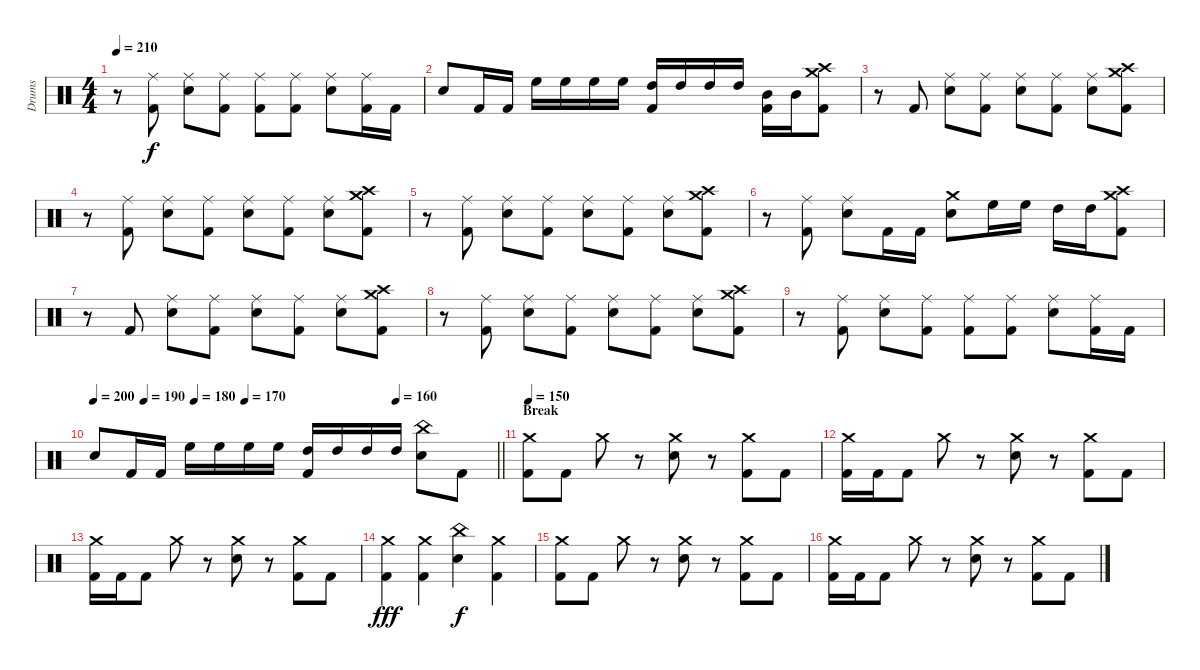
\track ("Drums" "Drums") {instrument percussion}
\staff {score}
\articulation defaults
\ts (4 4)
\tempo 210
\clef neutral
\ks c
r.8{dy f} ("Ride (middle)" "Kick (hit) 2").8 ("Ride (middle)" "Electric Snare (hit)").8 ("Ride (middle)" "Kick (hit) 2").8 ("Ride (middle)" "Kick (hit) 2").8 ("Ride (middle)" "Kick (hit) 2").8 ("Ride (middle)" "Electric Snare (hit)").8 ("Ride (middle)" "Kick (hit) 2").16 "Kick (hit) 2".16 |
"Electric Snare (hit)".8 "Kick (hit) 2".16 "Kick (hit) 2".16 "High Floor Tom (hit)".16 "High Floor Tom (hit)".16 "High Floor Tom (hit)".16 "High Floor Tom (hit)".16 ("High Tom (hit)" "Kick (hit) 2").16 "High Tom (hit)".16 "High Tom (hit)".16 "High Tom (hit)".16 ("Mid Tom (hit)" "Kick (hit) 2").16 "Mid Tom (hit)".16 ("Crash high (hit)" "Crash medium (hit)" "Kick (hit) 2").8 |
r.8 "Kick (hit) 2".8 ("Ride (middle)" "Electric Snare (hit)").8 ("Ride (middle)" "Kick (hit) 2").8 ("Ride (middle)" "Electric Snare (hit)").8 ("Ride (middle)" "Kick (hit) 2").8 ("Ride (middle)" "Electric Snare (hit)").8 ("Crash high (hit)" "Crash medium (hit)" "Kick (hit) 2").8 |
r.8 ("Ride (middle)" "Kick (hit) 2").8 ("Ride (middle)" "Electric Snare (hit)").8 ("Ride (middle)" "Kick (hit) 2").8 ("Ride (middle)" "Electric Snare (hit)").8 ("Ride (middle)" "Kick (hit) 2").8 ("Ride (middle)" "Electric Snare (hit)").8 ("Crash high (hit)" "Crash medium (hit)" "Kick (hit) 2").8 |
r.8 ("Ride (middle)" "Kick (hit) 2").8 ("Ride (middle)" "Electric Snare (hit)").8 ("Ride (middle)" "Kick (hit) 2").8 ("Ride (middle)" "Electric Snare (hit)").8 ("Ride (middle)" "Kick (hit) 2").8 ("Ride (middle)" "Electric Snare (hit)").8 ("Crash high (hit)" "Crash medium (hit)" "Kick (hit) 2").8 |
r.8 ("Ride (middle)" "Kick (hit) 2").8 ("Ride (middle)" "Electric Snare (hit)").8 "Kick (hit) 2".16 "Kick (hit) 2".16 ("Crash medium (hit)" "Electric Snare (hit)").8 "High Floor Tom (hit)".16 "High Floor Tom (hit)".16 "High Tom (hit)".16 "High Tom (hit)".16 ("Crash high (hit)" "Crash medium (hit)" "Kick (hit) 2").8 |
r.8 "Kick (hit) 2".8 ("Ride (middle)" "Electric Snare (hit)").8 ("Ride (middle)" "Kick (hit) 2").8 ("Ride (middle)" "Electric Snare (hit)").8 ("Ride (middle)" "Kick (hit) 2").8 ("Ride (middle)" "Electric Snare (hit)").8 ("Crash high (hit)" "Crash medium (hit)" "Kick (hit) 2").8 |
r.8 ("Ride (middle)" "Kick (hit) 2").8 ("Ride (middle)" "Electric Snare (hit)").8 ("Ride (middle)" "Kick (hit) 2").8 ("Ride (middle)" "Electric Snare (hit)").8 ("Ride (middle)" "Kick (hit) 2").8 ("Ride (middle)" "Electric Snare (hit)").8 ("Crash high (hit)" "Crash medium (hit)" "Kick (hit) 2").8 |
r.8 ("Ride (middle)" "Kick (hit) 2").8 ("Ride (middle)" "Electric Snare (hit)").8 ("Ride (middle)" "Kick (hit) 2").8 ("Ride (middle)" "Kick (hit) 2").8 ("Ride (middle)" "Kick (hit) 2").8 ("Ride (middle)" "Electric Snare (hit)").8 ("Ride (middle)" "Kick (hit) 2").16 "Kick (hit) 2".16 |
\tempo 200
\tempo (190 0.125)
\tempo (180 0.25)
\tempo (170 0.375)
\tempo (160 0.75)
\barLineRight lightlight "Electric Snare (hit)".8 "Kick (hit) 2".16 "Kick (hit) 2".16 "High Floor Tom (hit)".16 "High Floor Tom (hit)".16 "High Floor Tom (hit)".16 "High Floor Tom (hit)".16
("High Tom (hit)" "Kick (hit) 2").16 "High Tom (hit)".16 "High Tom (hit)".16 "High Tom (hit)".16 ("China (hit)" "Electric Snare (hit)").8 "Kick (hit) 2".8 |
\section ("" "Break")
\tempo 150
("Crash medium (hit)" "Kick (hit) 2").8 "Kick (hit) 2".8 "Crash medium (hit)".8 r.8 ("Crash medium (hit)" "Electric Snare (hit)").8 r.8 ("Crash medium (hit)" "Kick (hit) 2").8 "Kick (hit) 2".8 |
("Crash medium (hit)" "Kick (hit) 2").16 "Kick (hit) 2".16 "Kick (hit) 2".8 "Crash medium (hit)".8 r.8 ("Crash medium (hit)" "Electric Snare (hit)").8 r.8 ("Crash medium (hit)" "Kick (hit) 2").8 "Kick (hit) 2".8 |
("Crash medium (hit)" "Kick (hit) 2").16 "Kick (hit) 2".16 "Kick (hit) 2".8 "Crash medium (hit)".8 r.8 ("Crash medium (hit)" "Electric Snare (hit)").8 r.8 ("Crash medium (hit)" "Kick (hit) 2").8 "Kick (hit) 2".8 |
("Crash medium (hit)" "Kick (hit) 2").4{dy fff} ("Crash medium (hit)" "Kick (hit) 2").4 ("China (hit)" "Electric Snare (hit)").4{dy f} ("Crash medium (hit)" "Kick (hit) 2").4 |
("Crash medium (hit)" "Kick (hit) 2").8 "Kick (hit) 2".8 "Crash medium (hit)".8 r.8 ("Crash medium (hit)" "Electric Snare (hit)").8 r.8 ("Crash medium (hit)" "Kick (hit) 2").8 "Kick (hit) 2".8 |
("Crash medium (hit)" "Kick (hit) 2").16 "Kick (hit) 2".16 "Kick (hit) 2".8 "Crash medium (hit)".8 r.8 ("Crash medium (hit)" "Electric Snare (hit)").8 r.8 ("Crash medium (hit)" "Kick (hit) 2").8 "Kick (hit) 2".8
